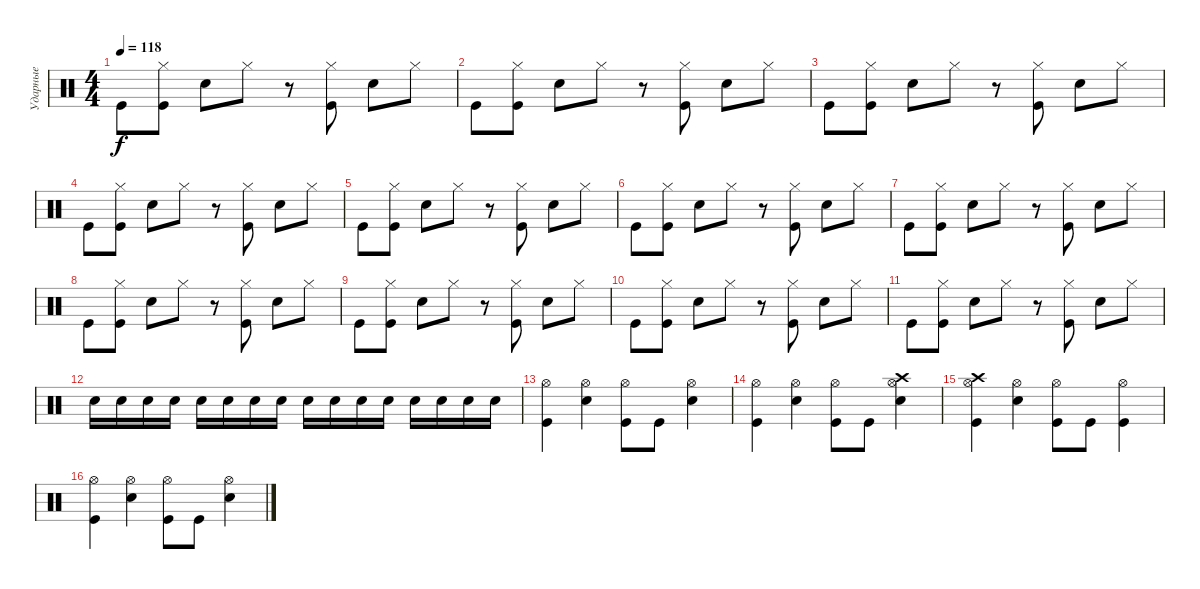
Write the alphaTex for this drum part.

\track ("Ударные" "Ударные") {instrument percussion}
\staff {score}
\articulation defaults
\ts (4 4)
\tempo 118
\clef neutral
\ks c "Kick (hit)".8{dy f}
("Hi-Hat (closed)" "Kick (hit)").8 "Snare (hit) 2".8 "Hi-Hat (closed)".8 r.8 ("Hi-Hat (closed)" "Kick (hit)").8 "Snare (hit) 2".8 "Hi-Hat (closed)".8 |
"Kick (hit)".8 ("Hi-Hat (closed)" "Kick (hit)").8 "Snare (hit) 2".8 "Hi-Hat (closed)".8 r.8 ("Hi-Hat (closed)" "Kick (hit)").8 "Snare (hit) 2".8 "Hi-Hat (closed)".8 |
"Kick (hit)".8 ("Hi-Hat (closed)" "Kick (hit)").8 "Snare (hit) 2".8 "Hi-Hat (closed)".8 r.8 ("Hi-Hat (closed)" "Kick (hit)").8 "Snare (hit) 2".8 "Hi-Hat (closed)".8 |
"Kick (hit)".8 ("Hi-Hat (closed)" "Kick (hit)").8 "Snare (hit) 2".8 "Hi-Hat (closed)".8 r.8 ("Hi-Hat (closed)" "Kick (hit)").8 "Snare (hit) 2".8 "Hi-Hat (closed)".8 |
"Kick (hit)".8 ("Hi-Hat (closed)" "Kick (hit)").8 "Snare (hit) 2".8 "Hi-Hat (closed)".8 r.8 ("Hi-Hat (closed)" "Kick (hit)").8 "Snare (hit) 2".8 "Hi-Hat (closed)".8 |
"Kick (hit)".8 ("Hi-Hat (closed)" "Kick (hit)").8 "Snare (hit) 2".8 "Hi-Hat (closed)".8 r.8 ("Hi-Hat (closed)" "Kick (hit)").8 "Snare (hit) 2".8 "Hi-Hat (closed)".8 |
"Kick (hit)".8 ("Hi-Hat (closed)" "Kick (hit)").8 "Snare (hit) 2".8 "Hi-Hat (closed)".8 r.8 ("Hi-Hat (closed)" "Kick (hit)").8 "Snare (hit) 2".8 "Hi-Hat (closed)".8 |
"Kick (hit)".8 ("Hi-Hat (closed)" "Kick (hit)").8 "Snare (hit) 2".8 "Hi-Hat (closed)".8 r.8 ("Hi-Hat (closed)" "Kick (hit)").8 "Snare (hit) 2".8 "Hi-Hat (closed)".8 |
"Kick (hit)".8 ("Hi-Hat (closed)" "Kick (hit)").8 "Snare (hit) 2".8 "Hi-Hat (closed)".8 r.8 ("Hi-Hat (closed)" "Kick (hit)").8 "Snare (hit) 2".8 "Hi-Hat (closed)".8 |
"Kick (hit)".8 ("Hi-Hat (closed)" "Kick (hit)").8 "Snare (hit) 2".8 "Hi-Hat (closed)".8 r.8 ("Hi-Hat (closed)" "Kick (hit)").8 "Snare (hit) 2".8 "Hi-Hat (closed)".8 |
"Kick (hit)".8 ("Hi-Hat (closed)" "Kick (hit)").8 "Snare (hit) 2".8 "Hi-Hat (closed)".8 r.8 ("Hi-Hat (closed)" "Kick (hit)").8 "Snare (hit) 2".8 "Hi-Hat (closed)".8 |
"Snare (hit) 2".16 "Snare (hit) 2".16 "Snare (hit) 2".16 "Snare (hit) 2".16 "Snare (hit) 2".16 "Snare (hit) 2".16 "Snare (hit) 2".16 "Snare (hit) 2".16 "Snare (hit) 2".16 "Snare (hit) 2".16 "Snare (hit) 2".16 "Snare (hit) 2".16 "Snare (hit) 2".16 "Snare (hit) 2".16 "Snare (hit) 2".16 "Snare (hit) 2".16 |
("Hi-Hat (open)" "Kick (hit)").4 ("Hi-Hat (open)" "Snare (hit) 2").4 ("Hi-Hat (open)" "Kick (hit)").8 "Kick (hit)".8 ("Hi-Hat (open)" "Snare (hit) 2").4 |
("Hi-Hat (open)" "Kick (hit)").4 ("Hi-Hat (open)" "Snare (hit) 2").4 ("Hi-Hat (open)" "Kick (hit)").8 "Kick (hit)".8 ("Hi-Hat (open)" "Crash high (hit)" "Snare (hit) 2").4 |
("Hi-Hat (open)" "Crash high (hit)" "Kick (hit)").4 ("Hi-Hat (open)" "Snare (hit) 2").4 ("Hi-Hat (open)" "Kick (hit)").8 "Kick (hit)".8 ("Hi-Hat (open)" "Kick (hit)").4 |
("Hi-Hat (open)" "Kick (hit)").4 ("Hi-Hat (open)" "Snare (hit) 2").4 ("Hi-Hat (open)" "Kick (hit)").8 "Kick (hit)".8 ("Hi-Hat (open)" "Snare (hit) 2").4
